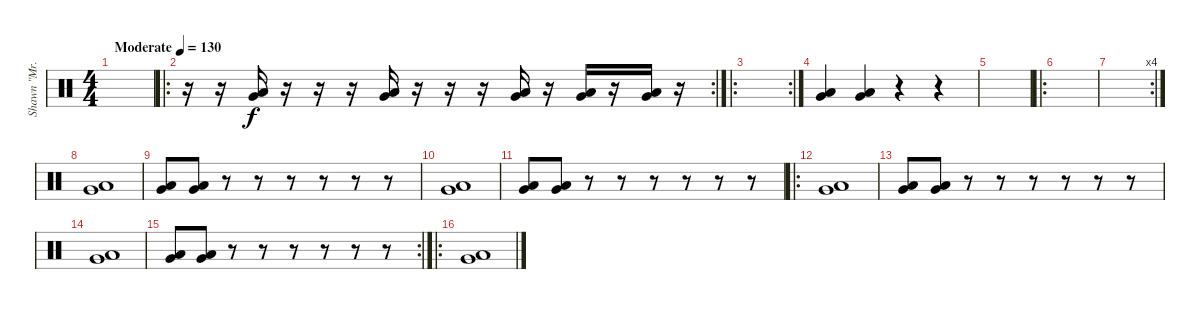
\track ("Shawn \"Mr.Clown\" Crahan" "Shawn \"Mr.") {instrument percussion}
\staff {score}
\articulation defaults
\ts (4 4)
\tempo (130 "Moderate")
\clef neutral
\ks c
|
\ro
\rc 2
r.16 r.16 ("Very Low Tom (hit)" "Low Floor Tom (hit)").16 r.16 r.16 r.16 ("Very Low Tom (hit)" "Low Floor Tom (hit)").16 r.16 r.16 r.16 ("Very Low Tom (hit)" "Low Floor Tom (hit)").16 r.16 ("Very Low Tom (hit)" "Low Floor Tom (hit)").16 r.16 ("Very Low Tom (hit)" "Low Floor Tom (hit)").16 r.16 |
\ro
\rc 2
|
("Very Low Tom (hit)" "Low Floor Tom (hit)").4 ("Very Low Tom (hit)" "Low Floor Tom (hit)").4 r.4 r.4 |
|
\ro
|
\rc 4
|
("Very Low Tom (hit)" "Low Floor Tom (hit)").1 |
("Very Low Tom (hit)" "Low Floor Tom (hit)").8 ("Very Low Tom (hit)" "Low Floor Tom (hit)").8 r.8 r.8 r.8 r.8 r.8 r.8 |
("Very Low Tom (hit)" "Low Floor Tom (hit)").1 |
("Very Low Tom (hit)" "Low Floor Tom (hit)").8 ("Very Low Tom (hit)" "Low Floor Tom (hit)").8 r.8 r.8 r.8 r.8 r.8 r.8 |
\ro
("Very Low Tom (hit)" "Low Floor Tom (hit)").1 |
("Very Low Tom (hit)" "Low Floor Tom (hit)").8 ("Very Low Tom (hit)" "Low Floor Tom (hit)").8 r.8 r.8 r.8 r.8 r.8 r.8 |
("Very Low Tom (hit)" "Low Floor Tom (hit)").1 |
\rc 2
("Very Low Tom (hit)" "Low Floor Tom (hit)").8 ("Very Low Tom (hit)" "Low Floor Tom (hit)").8 r.8 r.8 r.8 r.8 r.8 r.8 |
\ro
("Very Low Tom (hit)" "Low Floor Tom (hit)").1
